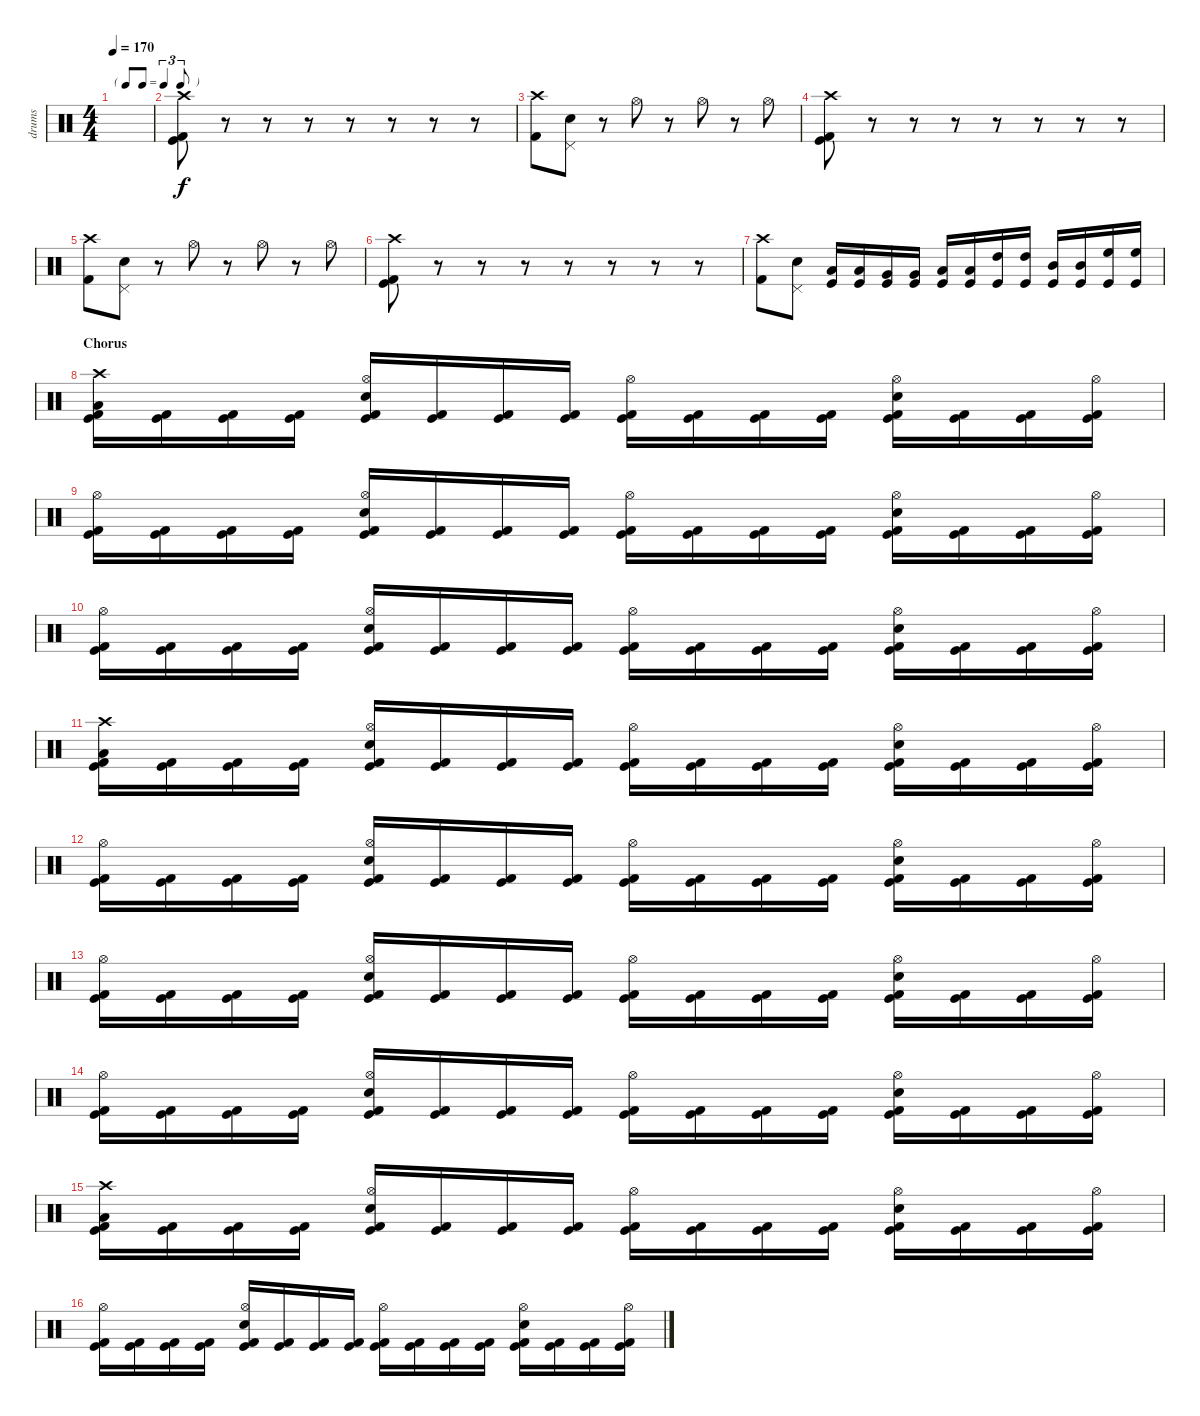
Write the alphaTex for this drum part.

\track ("drums" "drums") {instrument percussion}
\staff {score}
\articulation defaults
\ts (4 4)
\tf triplet8th
\tempo 170
\clef neutral
\ks c
|
("Crash high (hit)" "Kick (hit) 2" "Kick (hit)").8 r.8 r.8 r.8 r.8 r.8 r.8 r.8 |
("Crash high (hit)" "Kick (hit) 2").8 ("Electric Snare (hit)" "Pedal Hi-Hat (hit)").8 r.8 "Hi-Hat (open)".8 r.8 "Hi-Hat (open)".8 r.8 "Hi-Hat (open)".8 |
("Crash high (hit)" "Kick (hit) 2" "Kick (hit)").8 r.8 r.8 r.8 r.8 r.8 r.8 r.8 |
("Crash high (hit)" "Kick (hit) 2").8 ("Electric Snare (hit)" "Pedal Hi-Hat (hit)").8 r.8 "Hi-Hat (open)".8 r.8 "Hi-Hat (open)".8 r.8 "Hi-Hat (open)".8 |
("Crash high (hit)" "Kick (hit) 2" "Kick (hit)").8 r.8 r.8 r.8 r.8 r.8 r.8 r.8 |
("Crash high (hit)" "Kick (hit) 2").8 ("Electric Snare (hit)" "Pedal Hi-Hat (hit)").8 ("Low Tom (hit)" "Kick (hit)").16 ("Low Tom (hit)" "Kick (hit)").16 ("Very Low Tom (hit)" "Kick (hit)").16 ("Very Low Tom (hit)" "Kick (hit)").16 ("Low Floor Tom (hit)" "Kick (hit)").16 ("Low Floor Tom (hit)" "Kick (hit)").16 ("High Tom (hit)" "Kick (hit)").16 ("High Tom (hit)" "Kick (hit)").16 ("Mid Tom (hit)" "Kick (hit)").16 ("Mid Tom (hit)" "Kick (hit)").16 ("High Floor Tom (hit)" "Kick (hit)").16 ("High Floor Tom (hit)" "Kick (hit)").16 |
\section ("" "Chorus")
("Crash high (hit)" "Low Floor Tom (hit)" "Kick (hit)" "Kick (hit) 2").16 ("Kick (hit)" "Kick (hit) 2").16 ("Kick (hit)" "Kick (hit) 2").16 ("Kick (hit)" "Kick (hit) 2").16 ("Hi-Hat (open)" "Snare (hit) 2" "Kick (hit)" "Kick (hit) 2").16 ("Kick (hit)" "Kick (hit) 2").16 ("Kick (hit)" "Kick (hit) 2").16 ("Kick (hit)" "Kick (hit) 2").16 ("Hi-Hat (open)" "Kick (hit)" "Kick (hit) 2").16 ("Kick (hit)" "Kick (hit) 2").16 ("Kick (hit)" "Kick (hit) 2").16 ("Kick (hit)" "Kick (hit) 2").16 ("Hi-Hat (open)" "Snare (hit) 2" "Kick (hit)" "Kick (hit) 2").16 ("Kick (hit)" "Kick (hit) 2").16 ("Kick (hit)" "Kick (hit) 2").16 ("Hi-Hat (open)" "Kick (hit)" "Kick (hit) 2").16 |
("Hi-Hat (open)" "Kick (hit)" "Kick (hit) 2").16 ("Kick (hit)" "Kick (hit) 2").16 ("Kick (hit)" "Kick (hit) 2").16 ("Kick (hit)" "Kick (hit) 2").16 ("Hi-Hat (open)" "Snare (hit) 2" "Kick (hit)" "Kick (hit) 2").16 ("Kick (hit)" "Kick (hit) 2").16 ("Kick (hit)" "Kick (hit) 2").16 ("Kick (hit)" "Kick (hit) 2").16 ("Hi-Hat (open)" "Kick (hit)" "Kick (hit) 2").16 ("Kick (hit)" "Kick (hit) 2").16 ("Kick (hit)" "Kick (hit) 2").16 ("Kick (hit)" "Kick (hit) 2").16 ("Hi-Hat (open)" "Snare (hit) 2" "Kick (hit)" "Kick (hit) 2").16 ("Kick (hit)" "Kick (hit) 2").16 ("Kick (hit)" "Kick (hit) 2").16 ("Hi-Hat (open)" "Kick (hit)" "Kick (hit) 2").16 |
("Hi-Hat (open)" "Kick (hit)" "Kick (hit) 2").16 ("Kick (hit)" "Kick (hit) 2").16 ("Kick (hit)" "Kick (hit) 2").16 ("Kick (hit)" "Kick (hit) 2").16 ("Hi-Hat (open)" "Snare (hit) 2" "Kick (hit)" "Kick (hit) 2").16 ("Kick (hit)" "Kick (hit) 2").16 ("Kick (hit)" "Kick (hit) 2").16 ("Kick (hit)" "Kick (hit) 2").16 ("Hi-Hat (open)" "Kick (hit)" "Kick (hit) 2").16 ("Kick (hit)" "Kick (hit) 2").16 ("Kick (hit)" "Kick (hit) 2").16 ("Kick (hit)" "Kick (hit) 2").16 ("Hi-Hat (open)" "Snare (hit) 2" "Kick (hit)" "Kick (hit) 2").16 ("Kick (hit)" "Kick (hit) 2").16 ("Kick (hit)" "Kick (hit) 2").16 ("Hi-Hat (open)" "Kick (hit)" "Kick (hit) 2").16 |
("Crash high (hit)" "Low Floor Tom (hit)" "Kick (hit)" "Kick (hit) 2").16 ("Kick (hit)" "Kick (hit) 2").16 ("Kick (hit)" "Kick (hit) 2").16 ("Kick (hit)" "Kick (hit) 2").16 ("Hi-Hat (open)" "Snare (hit) 2" "Kick (hit)" "Kick (hit) 2").16 ("Kick (hit)" "Kick (hit) 2").16 ("Kick (hit)" "Kick (hit) 2").16 ("Kick (hit)" "Kick (hit) 2").16 ("Hi-Hat (open)" "Kick (hit)" "Kick (hit) 2").16 ("Kick (hit)" "Kick (hit) 2").16 ("Kick (hit)" "Kick (hit) 2").16 ("Kick (hit)" "Kick (hit) 2").16 ("Hi-Hat (open)" "Snare (hit) 2" "Kick (hit)" "Kick (hit) 2").16 ("Kick (hit)" "Kick (hit) 2").16 ("Kick (hit)" "Kick (hit) 2").16 ("Hi-Hat (open)" "Kick (hit)" "Kick (hit) 2").16 |
("Hi-Hat (open)" "Kick (hit)" "Kick (hit) 2").16 ("Kick (hit)" "Kick (hit) 2").16 ("Kick (hit)" "Kick (hit) 2").16 ("Kick (hit)" "Kick (hit) 2").16 ("Hi-Hat (open)" "Snare (hit) 2" "Kick (hit)" "Kick (hit) 2").16 ("Kick (hit)" "Kick (hit) 2").16 ("Kick (hit)" "Kick (hit) 2").16 ("Kick (hit)" "Kick (hit) 2").16 ("Hi-Hat (open)" "Kick (hit)" "Kick (hit) 2").16 ("Kick (hit)" "Kick (hit) 2").16 ("Kick (hit)" "Kick (hit) 2").16 ("Kick (hit)" "Kick (hit) 2").16 ("Hi-Hat (open)" "Snare (hit) 2" "Kick (hit)" "Kick (hit) 2").16 ("Kick (hit)" "Kick (hit) 2").16 ("Kick (hit)" "Kick (hit) 2").16 ("Hi-Hat (open)" "Kick (hit)" "Kick (hit) 2").16 |
("Hi-Hat (open)" "Kick (hit)" "Kick (hit) 2").16 ("Kick (hit)" "Kick (hit) 2").16 ("Kick (hit)" "Kick (hit) 2").16 ("Kick (hit)" "Kick (hit) 2").16 ("Hi-Hat (open)" "Snare (hit) 2" "Kick (hit)" "Kick (hit) 2").16 ("Kick (hit)" "Kick (hit) 2").16 ("Kick (hit)" "Kick (hit) 2").16 ("Kick (hit)" "Kick (hit) 2").16 ("Hi-Hat (open)" "Kick (hit)" "Kick (hit) 2").16 ("Kick (hit)" "Kick (hit) 2").16 ("Kick (hit)" "Kick (hit) 2").16 ("Kick (hit)" "Kick (hit) 2").16 ("Hi-Hat (open)" "Snare (hit) 2" "Kick (hit)" "Kick (hit) 2").16 ("Kick (hit)" "Kick (hit) 2").16 ("Kick (hit)" "Kick (hit) 2").16 ("Hi-Hat (open)" "Kick (hit)" "Kick (hit) 2").16 |
("Hi-Hat (open)" "Kick (hit)" "Kick (hit) 2").16 ("Kick (hit)" "Kick (hit) 2").16 ("Kick (hit)" "Kick (hit) 2").16 ("Kick (hit)" "Kick (hit) 2").16 ("Hi-Hat (open)" "Snare (hit) 2" "Kick (hit)" "Kick (hit) 2").16 ("Kick (hit)" "Kick (hit) 2").16 ("Kick (hit)" "Kick (hit) 2").16 ("Kick (hit)" "Kick (hit) 2").16 ("Hi-Hat (open)" "Kick (hit)" "Kick (hit) 2").16 ("Kick (hit)" "Kick (hit) 2").16 ("Kick (hit)" "Kick (hit) 2").16 ("Kick (hit)" "Kick (hit) 2").16 ("Hi-Hat (open)" "Snare (hit) 2" "Kick (hit)" "Kick (hit) 2").16 ("Kick (hit)" "Kick (hit) 2").16 ("Kick (hit)" "Kick (hit) 2").16 ("Hi-Hat (open)" "Kick (hit)" "Kick (hit) 2").16 |
("Crash high (hit)" "Low Floor Tom (hit)" "Kick (hit)" "Kick (hit) 2").16 ("Kick (hit)" "Kick (hit) 2").16 ("Kick (hit)" "Kick (hit) 2").16 ("Kick (hit)" "Kick (hit) 2").16 ("Hi-Hat (open)" "Snare (hit) 2" "Kick (hit)" "Kick (hit) 2").16 ("Kick (hit)" "Kick (hit) 2").16 ("Kick (hit)" "Kick (hit) 2").16 ("Kick (hit)" "Kick (hit) 2").16 ("Hi-Hat (open)" "Kick (hit)" "Kick (hit) 2").16 ("Kick (hit)" "Kick (hit) 2").16 ("Kick (hit)" "Kick (hit) 2").16 ("Kick (hit)" "Kick (hit) 2").16 ("Hi-Hat (open)" "Snare (hit) 2" "Kick (hit)" "Kick (hit) 2").16 ("Kick (hit)" "Kick (hit) 2").16 ("Kick (hit)" "Kick (hit) 2").16 ("Hi-Hat (open)" "Kick (hit)" "Kick (hit) 2").16 |
("Hi-Hat (open)" "Kick (hit)" "Kick (hit) 2").16 ("Kick (hit)" "Kick (hit) 2").16 ("Kick (hit)" "Kick (hit) 2").16 ("Kick (hit)" "Kick (hit) 2").16 ("Hi-Hat (open)" "Snare (hit) 2" "Kick (hit)" "Kick (hit) 2").16 ("Kick (hit)" "Kick (hit) 2").16 ("Kick (hit)" "Kick (hit) 2").16 ("Kick (hit)" "Kick (hit) 2").16 ("Hi-Hat (open)" "Kick (hit)" "Kick (hit) 2").16 ("Kick (hit)" "Kick (hit) 2").16 ("Kick (hit)" "Kick (hit) 2").16 ("Kick (hit)" "Kick (hit) 2").16 ("Hi-Hat (open)" "Snare (hit) 2" "Kick (hit)" "Kick (hit) 2").16 ("Kick (hit)" "Kick (hit) 2").16 ("Kick (hit)" "Kick (hit) 2").16 ("Hi-Hat (open)" "Kick (hit)" "Kick (hit) 2").16
